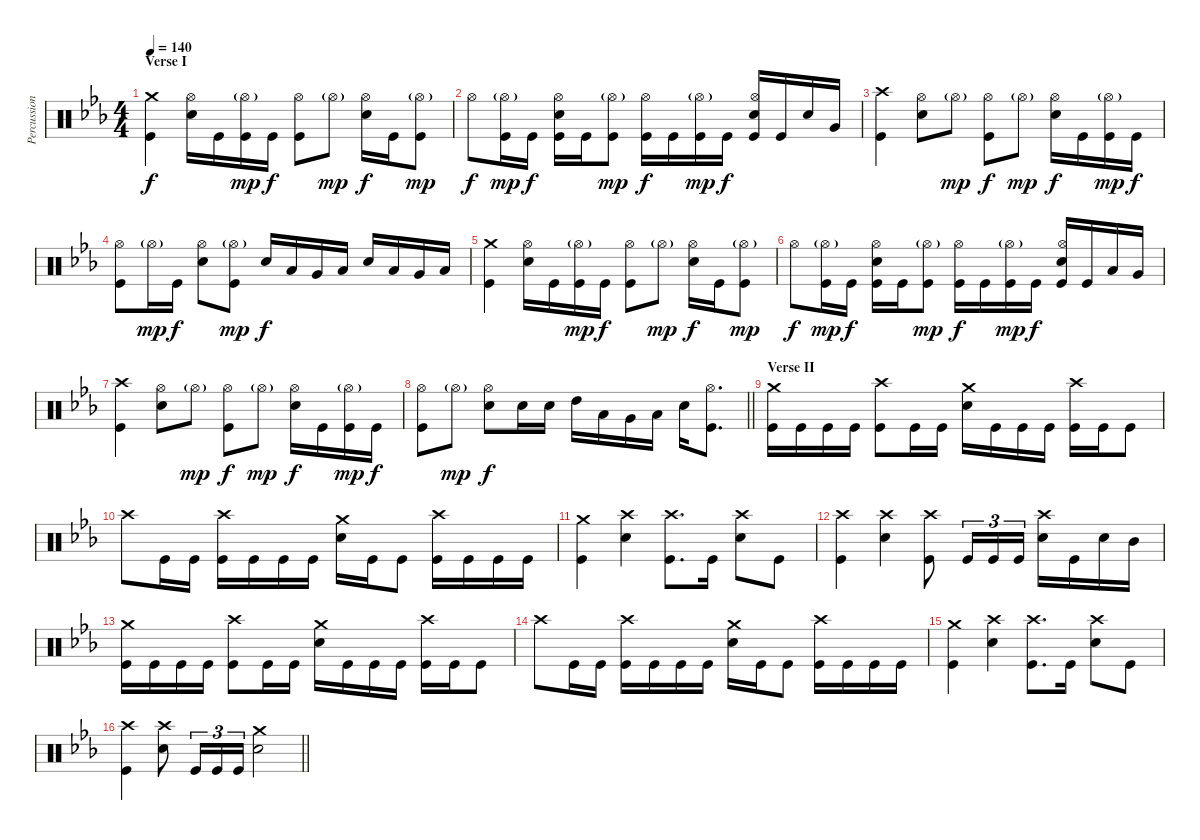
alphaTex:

\track ("Percussion" "Percussion") {instrument percussion}
\staff {score}
\articulation defaults
\ts (4 4)
\section ("" "Verse I")
\tempo 140
\clef neutral
\ks eb
("Crash medium (hit)" "Kick (hit)").4{dy f} ("Hi-Hat (open)" "Electric Snare (hit)").16 "Kick (hit)".16 ("Hi-Hat (open)"{g} "Kick (hit)").16{dy mp} "Kick (hit)".16{dy f} ("Hi-Hat (open)" "Kick (hit)").8 "Hi-Hat (open)"{g}.8{dy mp} ("Hi-Hat (open)" "Electric Snare (hit)").16{dy f} "Kick (hit)".16 ("Hi-Hat (open)"{g} "Kick (hit)").8{dy mp} |
"Hi-Hat (open)".8{dy f} ("Hi-Hat (open)"{g} "Kick (hit)").16{dy mp} "Kick (hit)".16{dy f} ("Hi-Hat (open)" "Electric Snare (hit)" "Kick (hit)").16 "Kick (hit)".16 ("Hi-Hat (open)"{g} "Kick (hit)").8{dy mp} ("Hi-Hat (open)" "Kick (hit)").16{dy f} "Kick (hit)".16 ("Hi-Hat (open)"{g} "Kick (hit)").16{dy mp} "Kick (hit)".16{dy f} ("Hi-Hat (open)" "Electric Snare (hit)" "Kick (hit)").16 "Kick (hit)".16 "Electric Snare (hit)".16 "Very Low Tom (hit)".16 |
("Crash high (hit)" "Kick (hit)").4 ("Hi-Hat (open)" "Electric Snare (hit)").8 "Hi-Hat (open)"{g}.8{dy mp} ("Hi-Hat (open)" "Kick (hit)").8{dy f} "Hi-Hat (open)"{g}.8{dy mp} ("Hi-Hat (open)" "Electric Snare (hit)").16{dy f} "Kick (hit)".16 ("Hi-Hat (open)"{g} "Kick (hit)").16{dy mp} "Kick (hit)".16{dy f} |
("Hi-Hat (open)" "Kick (hit)").8 "Hi-Hat (open)"{g}.16{dy mp} "Kick (hit)".16{dy f} ("Hi-Hat (open)" "Electric Snare (hit)").8 ("Hi-Hat (open)"{g} "Kick (hit)").8{dy mp} "Electric Snare (hit)".16{dy f} "Low Tom (hit)".16 "Very Low Tom (hit)".16 "Low Floor Tom (hit)".16 "Electric Snare (hit)".16 "Low Tom (hit)".16 "Very Low Tom (hit)".16 "Low Floor Tom (hit)".16 |
("Crash medium (hit)" "Kick (hit)").4 ("Hi-Hat (open)" "Electric Snare (hit)").16 "Kick (hit)".16 ("Hi-Hat (open)"{g} "Kick (hit)").16{dy mp} "Kick (hit)".16{dy f} ("Hi-Hat (open)" "Kick (hit)").8 "Hi-Hat (open)"{g}.8{dy mp} ("Hi-Hat (open)" "Electric Snare (hit)").16{dy f} "Kick (hit)".16 ("Hi-Hat (open)"{g} "Kick (hit)").8{dy mp} |
"Hi-Hat (open)".8{dy f} ("Hi-Hat (open)"{g} "Kick (hit)").16{dy mp} "Kick (hit)".16{dy f} ("Hi-Hat (open)" "Electric Snare (hit)" "Kick (hit)").16 "Kick (hit)".16 ("Hi-Hat (open)"{g} "Kick (hit)").8{dy mp} ("Hi-Hat (open)" "Kick (hit)").16{dy f} "Kick (hit)".16 ("Hi-Hat (open)"{g} "Kick (hit)").16{dy mp} "Kick (hit)".16{dy f} ("Hi-Hat (open)" "Electric Snare (hit)" "Kick (hit)").16 "Kick (hit)".16 "Low Tom (hit)".16 "Very Low Tom (hit)".16 |
("Crash high (hit)" "Kick (hit)").4 ("Hi-Hat (open)" "Electric Snare (hit)").8 "Hi-Hat (open)"{g}.8{dy mp} ("Hi-Hat (open)" "Kick (hit)").8{dy f} "Hi-Hat (open)"{g}.8{dy mp} ("Hi-Hat (open)" "Electric Snare (hit)").16{dy f} "Kick (hit)".16 ("Hi-Hat (open)"{g} "Kick (hit)").16{dy mp} "Kick (hit)".16{dy f} |
\barLineRight lightlight
("Hi-Hat (open)" "Kick (hit)").8 "Hi-Hat (open)"{g}.8{dy mp} ("Hi-Hat (open)" "Electric Snare (hit)").8{dy f} "Electric Snare (hit)".16 "Electric Snare (hit)".16 "High Tom (hit)".16 "Low Tom (hit)".16 "Very Low Tom (hit)".16 "Low Floor Tom (hit)".16 "Electric Snare (hit)".16 ("Hi-Hat (open)" "Kick (hit)").8{d} |
\section ("" "Verse II")
("Crash medium (hit)" "Kick (hit)").16 "Kick (hit)".16 "Kick (hit)".16 "Kick (hit)".16 ("Crash high (hit)" "Kick (hit)").8 "Kick (hit)".16 "Kick (hit)".16 ("Crash medium (hit)" "Electric Snare (hit)").16 "Kick (hit)".16 "Kick (hit)".16 "Kick (hit)".16 ("Crash high (hit)" "Kick (hit)").16 "Kick (hit)".16 "Kick (hit)".8 |
"Crash high (hit)".8 "Kick (hit)".16 "Kick (hit)".16 ("Crash high (hit)" "Kick (hit)").16 "Kick (hit)".16 "Kick (hit)".16 "Kick (hit)".16 ("Crash medium (hit)" "Electric Snare (hit)").16 "Kick (hit)".16 "Kick (hit)".8 ("Crash high (hit)" "Kick (hit)").16 "Kick (hit)".16 "Kick (hit)".16 "Kick (hit)".16 |
("Crash medium (hit)" "Kick (hit)").4 ("Crash high (hit)" "Electric Snare (hit)").4 ("Crash high (hit)" "Kick (hit)").8{d} "Kick (hit)".16 ("Crash high (hit)" "Electric Snare (hit)").8 "Kick (hit)".8 |
("Crash high (hit)" "Kick (hit)").4 ("Crash high (hit)" "Electric Snare (hit)").4 ("Crash high (hit)" "Kick (hit)").8 "Kick (hit)".16{tu (3 2)} "Kick (hit)".16{tu (3 2)} "Kick (hit)".16{tu (3 2)} ("Crash high (hit)" "Electric Snare (hit)").16 "Kick (hit)".16 "Electric Snare (hit)".16 "Mid Tom (hit)".16 |
("Crash medium (hit)" "Kick (hit)").16 "Kick (hit)".16 "Kick (hit)".16 "Kick (hit)".16 ("Crash high (hit)" "Kick (hit)").8 "Kick (hit)".16 "Kick (hit)".16 ("Crash medium (hit)" "Electric Snare (hit)").16 "Kick (hit)".16 "Kick (hit)".16 "Kick (hit)".16 ("Crash high (hit)" "Kick (hit)").16 "Kick (hit)".16 "Kick (hit)".8 |
"Crash high (hit)".8 "Kick (hit)".16 "Kick (hit)".16 ("Crash high (hit)" "Kick (hit)").16 "Kick (hit)".16 "Kick (hit)".16 "Kick (hit)".16 ("Crash medium (hit)" "Electric Snare (hit)").16 "Kick (hit)".16 "Kick (hit)".8 ("Crash high (hit)" "Kick (hit)").16 "Kick (hit)".16 "Kick (hit)".16 "Kick (hit)".16 |
("Crash medium (hit)" "Kick (hit)").4 ("Crash high (hit)" "Electric Snare (hit)").4 ("Crash high (hit)" "Kick (hit)").8{d} "Kick (hit)".16 ("Crash high (hit)" "Electric Snare (hit)").8 "Kick (hit)".8 |
\barLineRight lightlight
("Crash high (hit)" "Kick (hit)").4 ("Crash high (hit)" "Electric Snare (hit)").8 "Kick (hit)".16{tu (3 2)} "Kick (hit)".16{tu (3 2)} "Kick (hit)".16{tu (3 2)} ("Crash medium (hit)" "Electric Snare (hit)").2
